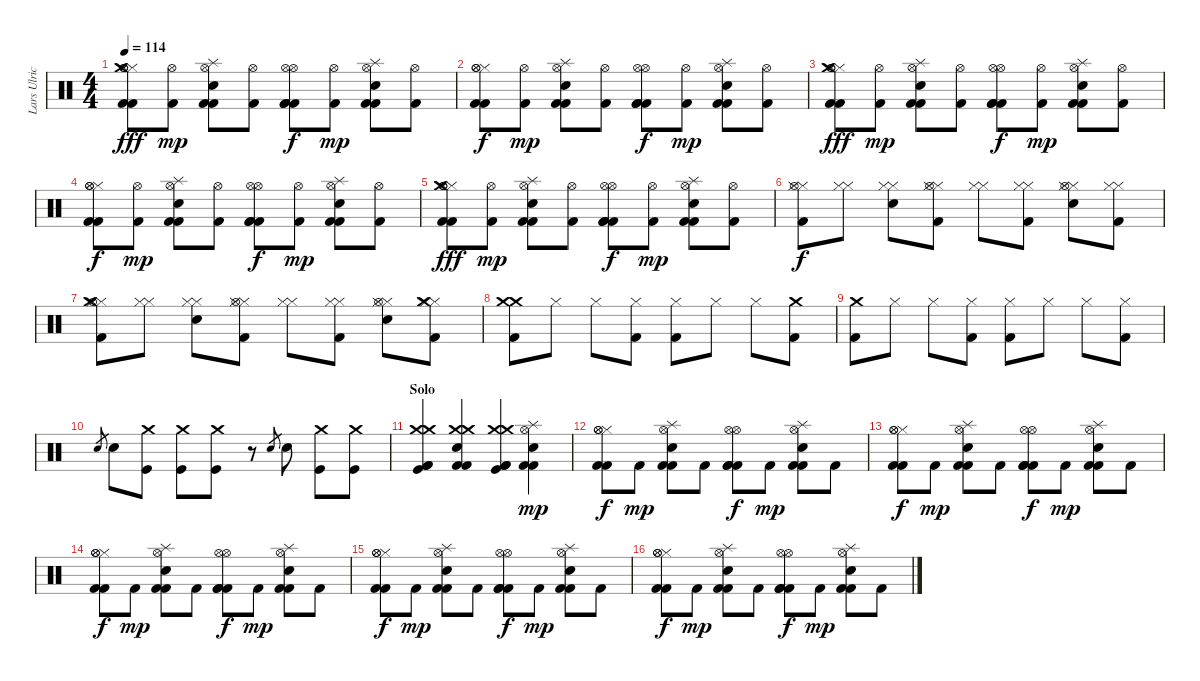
\track ("Lars Ulrich" "Lars Ulric") {instrument percussion}
\staff {score}
\articulation defaults
\ts (4 4)
\tempo 114
\clef neutral
\ks c
("Hi-Hat (closed)" "Hi-Hat (open)" "Hi-Hat (open)" "Kick (hit) 2" "Kick (hit) 2" "Crash medium (hit)").8{dy fff} ("Hi-Hat (open)" "Kick (hit) 2").8{dy mp} ("Snare (hit) 2" "Splash (hit)" "Hi-Hat (open)" "Kick (hit) 2" "Kick (hit) 2").8 ("Hi-Hat (open)" "Kick (hit) 2").8 ("Kick (hit) 2" "Hi-Hat (open)" "Hi-Hat (open)" "Kick (hit) 2" "Kick (hit) 2").8{dy f} ("Hi-Hat (open)" "Kick (hit) 2").8{dy mp} ("Snare (hit) 2" "Splash (hit)" "Hi-Hat (open)" "Kick (hit) 2" "Kick (hit) 2").8 ("Hi-Hat (open)" "Kick (hit) 2").8 |
("Hi-Hat (closed)" "Hi-Hat (open)" "Hi-Hat (open)" "Kick (hit) 2" "Kick (hit) 2").8{dy f} ("Hi-Hat (open)" "Kick (hit) 2").8{dy mp} ("Snare (hit) 2" "Splash (hit)" "Hi-Hat (open)" "Kick (hit) 2" "Kick (hit) 2").8 ("Hi-Hat (open)" "Kick (hit) 2").8 ("Kick (hit) 2" "Hi-Hat (open)" "Hi-Hat (open)" "Kick (hit) 2" "Kick (hit) 2").8{dy f} ("Hi-Hat (open)" "Kick (hit) 2").8{dy mp} ("Snare (hit) 2" "Splash (hit)" "Hi-Hat (open)" "Kick (hit) 2" "Kick (hit) 2").8 ("Hi-Hat (open)" "Kick (hit) 2").8 |
("Hi-Hat (closed)" "Hi-Hat (open)" "Hi-Hat (open)" "Kick (hit) 2" "Kick (hit) 2" "Crash medium (hit)").8{dy fff} ("Hi-Hat (open)" "Kick (hit) 2").8{dy mp} ("Snare (hit) 2" "Splash (hit)" "Hi-Hat (open)" "Kick (hit) 2" "Kick (hit) 2").8 ("Hi-Hat (open)" "Kick (hit) 2").8 ("Kick (hit) 2" "Hi-Hat (open)" "Hi-Hat (open)" "Kick (hit) 2" "Kick (hit) 2").8{dy f} ("Hi-Hat (open)" "Kick (hit) 2").8{dy mp} ("Snare (hit) 2" "Splash (hit)" "Hi-Hat (open)" "Kick (hit) 2" "Kick (hit) 2").8 ("Hi-Hat (open)" "Kick (hit) 2").8 |
("Hi-Hat (closed)" "Hi-Hat (open)" "Hi-Hat (open)" "Kick (hit) 2" "Kick (hit) 2").8{dy f} ("Hi-Hat (open)" "Kick (hit) 2").8{dy mp} ("Snare (hit) 2" "Splash (hit)" "Hi-Hat (open)" "Kick (hit) 2" "Kick (hit) 2").8 ("Hi-Hat (open)" "Kick (hit) 2").8 ("Kick (hit) 2" "Hi-Hat (open)" "Hi-Hat (open)" "Kick (hit) 2" "Kick (hit) 2").8{dy f} ("Hi-Hat (open)" "Kick (hit) 2").8{dy mp} ("Snare (hit) 2" "Splash (hit)" "Hi-Hat (open)" "Kick (hit) 2" "Kick (hit) 2").8 ("Hi-Hat (open)" "Kick (hit) 2").8 |
("Hi-Hat (closed)" "Hi-Hat (open)" "Hi-Hat (open)" "Kick (hit) 2" "Kick (hit) 2" "Crash medium (hit)").8{dy fff} ("Hi-Hat (open)" "Kick (hit) 2").8{dy mp} ("Snare (hit) 2" "Splash (hit)" "Hi-Hat (open)" "Kick (hit) 2" "Kick (hit) 2").8 ("Hi-Hat (open)" "Kick (hit) 2").8 ("Kick (hit) 2" "Hi-Hat (open)" "Hi-Hat (open)" "Kick (hit) 2" "Kick (hit) 2").8{dy f} ("Hi-Hat (open)" "Kick (hit) 2").8{dy mp} ("Snare (hit) 2" "Splash (hit)" "Hi-Hat (open)" "Kick (hit) 2" "Kick (hit) 2").8 ("Hi-Hat (open)" "Kick (hit) 2").8 |
("Kick (hit) 2" "Hi-Hat (closed)" "Hi-Hat (closed)" "Hi-Hat (open)").8{dy f} ("Hi-Hat (closed)" "Hi-Hat (closed)").8 ("Electric Snare (hit)" "Hi-Hat (closed)" "Hi-Hat (closed)").8 ("Kick (hit) 2" "Hi-Hat (closed)" "Hi-Hat (closed)" "Hi-Hat (open)").8 ("Hi-Hat (closed)" "Hi-Hat (closed)").8 ("Kick (hit) 2" "Hi-Hat (closed)" "Hi-Hat (closed)").8 ("Electric Snare (hit)" "Hi-Hat (closed)" "Hi-Hat (closed)" "Hi-Hat (open)").8 ("Kick (hit) 2" "Hi-Hat (closed)" "Hi-Hat (closed)").8 |
("Kick (hit) 2" "Hi-Hat (closed)" "Hi-Hat (closed)" "Hi-Hat (open)" "Crash medium (hit)").8 ("Hi-Hat (closed)" "Hi-Hat (closed)").8 ("Electric Snare (hit)" "Hi-Hat (closed)" "Hi-Hat (closed)").8 ("Kick (hit) 2" "Hi-Hat (closed)" "Hi-Hat (closed)" "Hi-Hat (open)").8 ("Hi-Hat (closed)" "Hi-Hat (closed)").8 ("Kick (hit) 2" "Hi-Hat (closed)" "Hi-Hat (closed)").8 ("Electric Snare (hit)" "Hi-Hat (closed)" "Hi-Hat (closed)" "Hi-Hat (open)").8 ("Kick (hit) 2" "Hi-Hat (closed)" "Hi-Hat (closed)" "Crash medium (hit)").8 |
("Kick (hit) 2" "Crash medium (hit)" "Crash medium (hit)").8 "Hi-Hat (closed)".8 "Hi-Hat (closed)".8 ("Kick (hit) 2" "Hi-Hat (closed)").8 ("Kick (hit) 2" "Hi-Hat (closed)").8 "Hi-Hat (closed)".8 "Hi-Hat (closed)".8 ("Kick (hit) 2" "Crash medium (hit)").8 |
("Kick (hit) 2" "Crash medium (hit)").8 "Hi-Hat (closed)".8 "Hi-Hat (closed)".8 ("Kick (hit) 2" "Hi-Hat (closed)").8 ("Kick (hit) 2" "Hi-Hat (closed)").8 "Hi-Hat (closed)".8 "Hi-Hat (closed)".8 ("Kick (hit) 2" "Hi-Hat (closed)").8 |
"Electric Snare (hit)".8{gr} "Electric Snare (hit)".8 ("Kick (hit)" "Crash medium (hit)").8 ("Kick (hit)" "Crash medium (hit)").8 ("Kick (hit)" "Crash medium (hit)").8 r.8 "Electric Snare (hit)".8{gr} "Electric Snare (hit)".8 ("Kick (hit)" "Crash medium (hit)").8 ("Kick (hit)" "Crash medium (hit)").8 |
\section ("" "Solo")
("Kick (hit)" "Crash medium (hit)" "Kick (hit) 2" "Kick (hit) 2" "Crash medium (hit)").4 ("Electric Snare (hit)" "Crash medium (hit)" "Kick (hit) 2" "Kick (hit) 2" "Crash medium (hit)").4 ("Kick (hit)" "Crash medium (hit)" "Kick (hit) 2" "Kick (hit) 2" "Crash medium (hit)").4 ("Snare (hit) 2" "Splash (hit)" "Hi-Hat (open)" "Kick (hit) 2" "Kick (hit) 2").4{dy mp} |
("Hi-Hat (closed)" "Hi-Hat (open)" "Hi-Hat (open)" "Kick (hit) 2" "Kick (hit) 2").8{dy f} "Kick (hit) 2".8{dy mp} ("Snare (hit) 2" "Splash (hit)" "Hi-Hat (open)" "Kick (hit) 2" "Kick (hit) 2").8 "Kick (hit) 2".8 ("Kick (hit) 2" "Hi-Hat (open)" "Hi-Hat (open)" "Kick (hit) 2" "Kick (hit) 2").8{dy f} "Kick (hit) 2".8{dy mp} ("Snare (hit) 2" "Splash (hit)" "Hi-Hat (open)" "Kick (hit) 2" "Kick (hit) 2").8 "Kick (hit) 2".8 |
("Hi-Hat (closed)" "Hi-Hat (open)" "Hi-Hat (open)" "Kick (hit) 2" "Kick (hit) 2").8{dy f} "Kick (hit) 2".8{dy mp} ("Snare (hit) 2" "Splash (hit)" "Hi-Hat (open)" "Kick (hit) 2" "Kick (hit) 2").8 "Kick (hit) 2".8 ("Kick (hit) 2" "Hi-Hat (open)" "Hi-Hat (open)" "Kick (hit) 2" "Kick (hit) 2").8{dy f} "Kick (hit) 2".8{dy mp} ("Snare (hit) 2" "Splash (hit)" "Hi-Hat (open)" "Kick (hit) 2" "Kick (hit) 2").8 "Kick (hit) 2".8 |
("Hi-Hat (closed)" "Hi-Hat (open)" "Hi-Hat (open)" "Kick (hit) 2" "Kick (hit) 2").8{dy f} "Kick (hit) 2".8{dy mp} ("Snare (hit) 2" "Splash (hit)" "Hi-Hat (open)" "Kick (hit) 2" "Kick (hit) 2").8 "Kick (hit) 2".8 ("Kick (hit) 2" "Hi-Hat (open)" "Hi-Hat (open)" "Kick (hit) 2" "Kick (hit) 2").8{dy f} "Kick (hit) 2".8{dy mp} ("Snare (hit) 2" "Splash (hit)" "Hi-Hat (open)" "Kick (hit) 2" "Kick (hit) 2").8 "Kick (hit) 2".8 |
("Hi-Hat (closed)" "Hi-Hat (open)" "Hi-Hat (open)" "Kick (hit) 2" "Kick (hit) 2").8{dy f} "Kick (hit) 2".8{dy mp} ("Snare (hit) 2" "Splash (hit)" "Hi-Hat (open)" "Kick (hit) 2" "Kick (hit) 2").8 "Kick (hit) 2".8 ("Kick (hit) 2" "Hi-Hat (open)" "Hi-Hat (open)" "Kick (hit) 2" "Kick (hit) 2").8{dy f} "Kick (hit) 2".8{dy mp} ("Snare (hit) 2" "Splash (hit)" "Hi-Hat (open)" "Kick (hit) 2" "Kick (hit) 2").8 "Kick (hit) 2".8 |
("Hi-Hat (closed)" "Hi-Hat (open)" "Hi-Hat (open)" "Kick (hit) 2" "Kick (hit) 2").8{dy f} "Kick (hit) 2".8{dy mp} ("Snare (hit) 2" "Splash (hit)" "Hi-Hat (open)" "Kick (hit) 2" "Kick (hit) 2").8 "Kick (hit) 2".8 ("Kick (hit) 2" "Hi-Hat (open)" "Hi-Hat (open)" "Kick (hit) 2" "Kick (hit) 2").8{dy f} "Kick (hit) 2".8{dy mp} ("Snare (hit) 2" "Splash (hit)" "Hi-Hat (open)" "Kick (hit) 2" "Kick (hit) 2").8 "Kick (hit) 2".8
